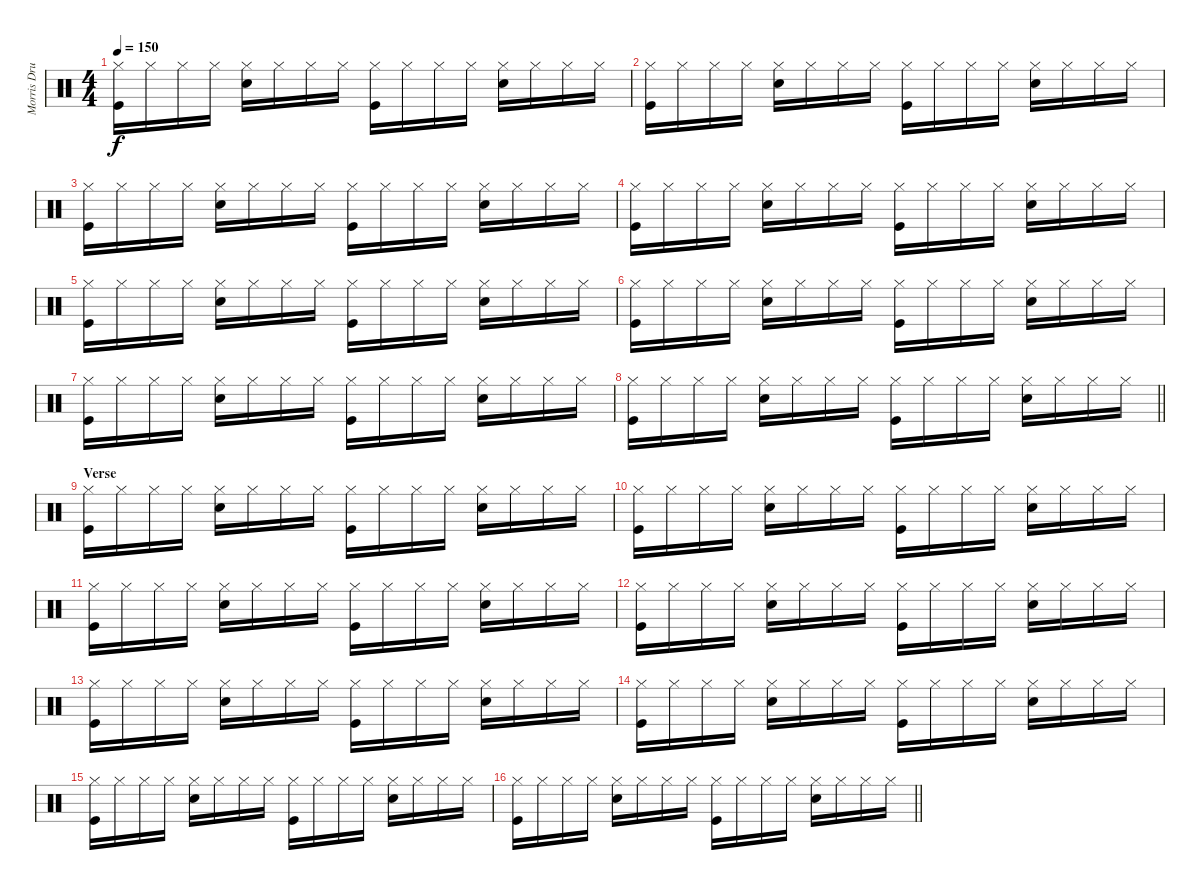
\track ("Morris Drums" "Morris Dru") {instrument percussion}
\staff {score}
\articulation defaults
\ts (4 4)
\tempo 150
\clef neutral
\ks c
("Hi-Hat (closed)" "Kick (hit)").16{dy f} "Hi-Hat (closed)".16 "Hi-Hat (closed)".16 "Hi-Hat (closed)".16 ("Hi-Hat (closed)" "Snare (hit) 2").16 "Hi-Hat (closed)".16 "Hi-Hat (closed)".16 "Hi-Hat (closed)".16 ("Hi-Hat (closed)" "Kick (hit)").16 "Hi-Hat (closed)".16 "Hi-Hat (closed)".16 "Hi-Hat (closed)".16 ("Hi-Hat (closed)" "Snare (hit) 2").16 "Hi-Hat (closed)".16 "Hi-Hat (closed)".16 "Hi-Hat (closed)".16 |
("Hi-Hat (closed)" "Kick (hit)").16 "Hi-Hat (closed)".16 "Hi-Hat (closed)".16 "Hi-Hat (closed)".16 ("Hi-Hat (closed)" "Snare (hit) 2").16 "Hi-Hat (closed)".16 "Hi-Hat (closed)".16 "Hi-Hat (closed)".16 ("Hi-Hat (closed)" "Kick (hit)").16 "Hi-Hat (closed)".16 "Hi-Hat (closed)".16 "Hi-Hat (closed)".16 ("Hi-Hat (closed)" "Snare (hit) 2").16 "Hi-Hat (closed)".16 "Hi-Hat (closed)".16 "Hi-Hat (closed)".16 |
("Hi-Hat (closed)" "Kick (hit)").16 "Hi-Hat (closed)".16 "Hi-Hat (closed)".16 "Hi-Hat (closed)".16 ("Hi-Hat (closed)" "Snare (hit) 2").16 "Hi-Hat (closed)".16 "Hi-Hat (closed)".16 "Hi-Hat (closed)".16 ("Hi-Hat (closed)" "Kick (hit)").16 "Hi-Hat (closed)".16 "Hi-Hat (closed)".16 "Hi-Hat (closed)".16 ("Hi-Hat (closed)" "Snare (hit) 2").16 "Hi-Hat (closed)".16 "Hi-Hat (closed)".16 "Hi-Hat (closed)".16 |
("Hi-Hat (closed)" "Kick (hit)").16 "Hi-Hat (closed)".16 "Hi-Hat (closed)".16 "Hi-Hat (closed)".16 ("Hi-Hat (closed)" "Snare (hit) 2").16 "Hi-Hat (closed)".16 "Hi-Hat (closed)".16 "Hi-Hat (closed)".16 ("Hi-Hat (closed)" "Kick (hit)").16 "Hi-Hat (closed)".16 "Hi-Hat (closed)".16 "Hi-Hat (closed)".16 ("Hi-Hat (closed)" "Snare (hit) 2").16 "Hi-Hat (closed)".16 "Hi-Hat (closed)".16 "Hi-Hat (closed)".16 |
("Hi-Hat (closed)" "Kick (hit)").16 "Hi-Hat (closed)".16 "Hi-Hat (closed)".16 "Hi-Hat (closed)".16 ("Hi-Hat (closed)" "Snare (hit) 2").16 "Hi-Hat (closed)".16 "Hi-Hat (closed)".16 "Hi-Hat (closed)".16 ("Hi-Hat (closed)" "Kick (hit)").16 "Hi-Hat (closed)".16 "Hi-Hat (closed)".16 "Hi-Hat (closed)".16 ("Hi-Hat (closed)" "Snare (hit) 2").16 "Hi-Hat (closed)".16 "Hi-Hat (closed)".16 "Hi-Hat (closed)".16 |
("Hi-Hat (closed)" "Kick (hit)").16 "Hi-Hat (closed)".16 "Hi-Hat (closed)".16 "Hi-Hat (closed)".16 ("Hi-Hat (closed)" "Snare (hit) 2").16 "Hi-Hat (closed)".16 "Hi-Hat (closed)".16 "Hi-Hat (closed)".16 ("Hi-Hat (closed)" "Kick (hit)").16 "Hi-Hat (closed)".16 "Hi-Hat (closed)".16 "Hi-Hat (closed)".16 ("Hi-Hat (closed)" "Snare (hit) 2").16 "Hi-Hat (closed)".16 "Hi-Hat (closed)".16 "Hi-Hat (closed)".16 |
("Hi-Hat (closed)" "Kick (hit)").16 "Hi-Hat (closed)".16 "Hi-Hat (closed)".16 "Hi-Hat (closed)".16 ("Hi-Hat (closed)" "Snare (hit) 2").16 "Hi-Hat (closed)".16 "Hi-Hat (closed)".16 "Hi-Hat (closed)".16 ("Hi-Hat (closed)" "Kick (hit)").16 "Hi-Hat (closed)".16 "Hi-Hat (closed)".16 "Hi-Hat (closed)".16 ("Hi-Hat (closed)" "Snare (hit) 2").16 "Hi-Hat (closed)".16 "Hi-Hat (closed)".16 "Hi-Hat (closed)".16 |
\barLineRight lightlight
("Hi-Hat (closed)" "Kick (hit)").16 "Hi-Hat (closed)".16 "Hi-Hat (closed)".16 "Hi-Hat (closed)".16 ("Hi-Hat (closed)" "Snare (hit) 2").16 "Hi-Hat (closed)".16 "Hi-Hat (closed)".16 "Hi-Hat (closed)".16 ("Hi-Hat (closed)" "Kick (hit)").16 "Hi-Hat (closed)".16 "Hi-Hat (closed)".16 "Hi-Hat (closed)".16 ("Hi-Hat (closed)" "Snare (hit) 2").16 "Hi-Hat (closed)".16 "Hi-Hat (closed)".16 "Hi-Hat (closed)".16 |
\section ("" "Verse")
("Hi-Hat (closed)" "Kick (hit)").16 "Hi-Hat (closed)".16 "Hi-Hat (closed)".16 "Hi-Hat (closed)".16 ("Hi-Hat (closed)" "Snare (hit) 2").16 "Hi-Hat (closed)".16 "Hi-Hat (closed)".16 "Hi-Hat (closed)".16 ("Hi-Hat (closed)" "Kick (hit)").16 "Hi-Hat (closed)".16 "Hi-Hat (closed)".16 "Hi-Hat (closed)".16 ("Hi-Hat (closed)" "Snare (hit) 2").16 "Hi-Hat (closed)".16 "Hi-Hat (closed)".16 "Hi-Hat (closed)".16 |
("Hi-Hat (closed)" "Kick (hit)").16 "Hi-Hat (closed)".16 "Hi-Hat (closed)".16 "Hi-Hat (closed)".16 ("Hi-Hat (closed)" "Snare (hit) 2").16 "Hi-Hat (closed)".16 "Hi-Hat (closed)".16 "Hi-Hat (closed)".16 ("Hi-Hat (closed)" "Kick (hit)").16 "Hi-Hat (closed)".16 "Hi-Hat (closed)".16 "Hi-Hat (closed)".16 ("Hi-Hat (closed)" "Snare (hit) 2").16 "Hi-Hat (closed)".16 "Hi-Hat (closed)".16 "Hi-Hat (closed)".16 |
("Hi-Hat (closed)" "Kick (hit)").16 "Hi-Hat (closed)".16 "Hi-Hat (closed)".16 "Hi-Hat (closed)".16 ("Hi-Hat (closed)" "Snare (hit) 2").16 "Hi-Hat (closed)".16 "Hi-Hat (closed)".16 "Hi-Hat (closed)".16 ("Hi-Hat (closed)" "Kick (hit)").16 "Hi-Hat (closed)".16 "Hi-Hat (closed)".16 "Hi-Hat (closed)".16 ("Hi-Hat (closed)" "Snare (hit) 2").16 "Hi-Hat (closed)".16 "Hi-Hat (closed)".16 "Hi-Hat (closed)".16 |
("Hi-Hat (closed)" "Kick (hit)").16 "Hi-Hat (closed)".16 "Hi-Hat (closed)".16 "Hi-Hat (closed)".16 ("Hi-Hat (closed)" "Snare (hit) 2").16 "Hi-Hat (closed)".16 "Hi-Hat (closed)".16 "Hi-Hat (closed)".16 ("Hi-Hat (closed)" "Kick (hit)").16 "Hi-Hat (closed)".16 "Hi-Hat (closed)".16 "Hi-Hat (closed)".16 ("Hi-Hat (closed)" "Snare (hit) 2").16 "Hi-Hat (closed)".16 "Hi-Hat (closed)".16 "Hi-Hat (closed)".16 |
("Hi-Hat (closed)" "Kick (hit)").16 "Hi-Hat (closed)".16 "Hi-Hat (closed)".16 "Hi-Hat (closed)".16 ("Hi-Hat (closed)" "Snare (hit) 2").16 "Hi-Hat (closed)".16 "Hi-Hat (closed)".16 "Hi-Hat (closed)".16 ("Hi-Hat (closed)" "Kick (hit)").16 "Hi-Hat (closed)".16 "Hi-Hat (closed)".16 "Hi-Hat (closed)".16 ("Hi-Hat (closed)" "Snare (hit) 2").16 "Hi-Hat (closed)".16 "Hi-Hat (closed)".16 "Hi-Hat (closed)".16 |
("Hi-Hat (closed)" "Kick (hit)").16 "Hi-Hat (closed)".16 "Hi-Hat (closed)".16 "Hi-Hat (closed)".16 ("Hi-Hat (closed)" "Snare (hit) 2").16 "Hi-Hat (closed)".16 "Hi-Hat (closed)".16 "Hi-Hat (closed)".16 ("Hi-Hat (closed)" "Kick (hit)").16 "Hi-Hat (closed)".16 "Hi-Hat (closed)".16 "Hi-Hat (closed)".16 ("Hi-Hat (closed)" "Snare (hit) 2").16 "Hi-Hat (closed)".16 "Hi-Hat (closed)".16 "Hi-Hat (closed)".16 |
("Hi-Hat (closed)" "Kick (hit)").16 "Hi-Hat (closed)".16 "Hi-Hat (closed)".16 "Hi-Hat (closed)".16 ("Hi-Hat (closed)" "Snare (hit) 2").16 "Hi-Hat (closed)".16 "Hi-Hat (closed)".16 "Hi-Hat (closed)".16 ("Hi-Hat (closed)" "Kick (hit)").16 "Hi-Hat (closed)".16 "Hi-Hat (closed)".16 "Hi-Hat (closed)".16 ("Hi-Hat (closed)" "Snare (hit) 2").16 "Hi-Hat (closed)".16 "Hi-Hat (closed)".16 "Hi-Hat (closed)".16 |
\barLineRight lightlight
("Hi-Hat (closed)" "Kick (hit)").16 "Hi-Hat (closed)".16 "Hi-Hat (closed)".16 "Hi-Hat (closed)".16 ("Hi-Hat (closed)" "Snare (hit) 2").16 "Hi-Hat (closed)".16 "Hi-Hat (closed)".16 "Hi-Hat (closed)".16 ("Hi-Hat (closed)" "Kick (hit)").16 "Hi-Hat (closed)".16 "Hi-Hat (closed)".16 "Hi-Hat (closed)".16 ("Hi-Hat (closed)" "Snare (hit) 2").16 "Hi-Hat (closed)".16 "Hi-Hat (closed)".16 "Hi-Hat (closed)".16
